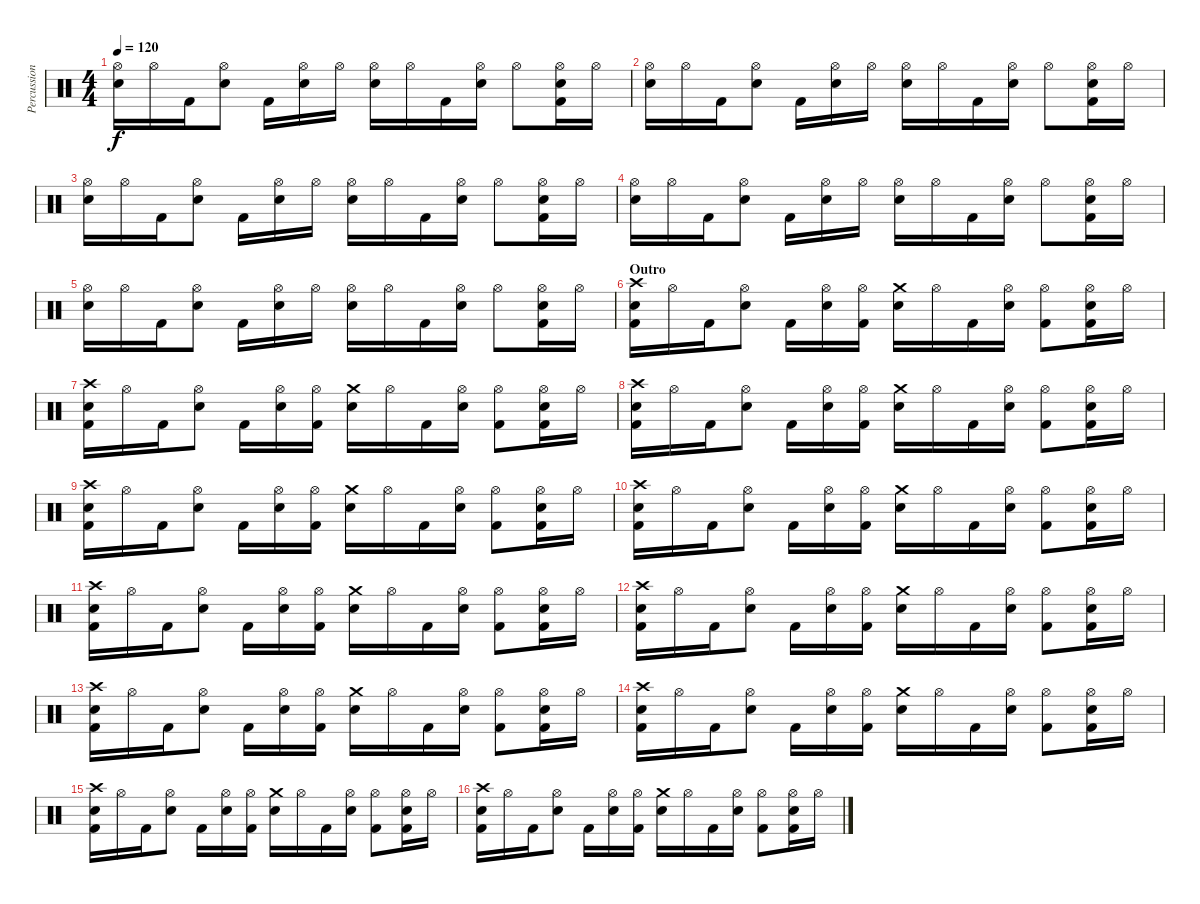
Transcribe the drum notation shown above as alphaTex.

\track ("Percussion" "Percussion") {instrument percussion}
\staff {score}
\articulation defaults
\ts (4 4)
\tempo 120
\clef neutral
\ks c
("Hi-Hat (open)" "Electric Snare (hit)").16{dy f} "Hi-Hat (open)".16 "Kick (hit) 2".16 ("Hi-Hat (open)" "Electric Snare (hit)").8 "Kick (hit) 2".16 ("Hi-Hat (open)" "Electric Snare (hit)").16 "Hi-Hat (open)".16 ("Hi-Hat (open)" "Electric Snare (hit)").16 "Hi-Hat (open)".16 "Kick (hit) 2".16 ("Hi-Hat (open)" "Electric Snare (hit)").16 "Hi-Hat (open)".8 ("Hi-Hat (open)" "Electric Snare (hit)" "Kick (hit) 2").16 "Hi-Hat (open)".16 |
("Hi-Hat (open)" "Electric Snare (hit)").16 "Hi-Hat (open)".16 "Kick (hit) 2".16 ("Hi-Hat (open)" "Electric Snare (hit)").8 "Kick (hit) 2".16 ("Hi-Hat (open)" "Electric Snare (hit)").16 "Hi-Hat (open)".16 ("Hi-Hat (open)" "Electric Snare (hit)").16 "Hi-Hat (open)".16 "Kick (hit) 2".16 ("Hi-Hat (open)" "Electric Snare (hit)").16 "Hi-Hat (open)".8 ("Hi-Hat (open)" "Electric Snare (hit)" "Kick (hit) 2").16 "Hi-Hat (open)".16 |
("Hi-Hat (open)" "Electric Snare (hit)").16 "Hi-Hat (open)".16 "Kick (hit) 2".16 ("Hi-Hat (open)" "Electric Snare (hit)").8 "Kick (hit) 2".16 ("Hi-Hat (open)" "Electric Snare (hit)").16 "Hi-Hat (open)".16 ("Hi-Hat (open)" "Electric Snare (hit)").16 "Hi-Hat (open)".16 "Kick (hit) 2".16 ("Hi-Hat (open)" "Electric Snare (hit)").16 "Hi-Hat (open)".8 ("Hi-Hat (open)" "Electric Snare (hit)" "Kick (hit) 2").16 "Hi-Hat (open)".16 |
("Hi-Hat (open)" "Electric Snare (hit)").16 "Hi-Hat (open)".16 "Kick (hit) 2".16 ("Hi-Hat (open)" "Electric Snare (hit)").8 "Kick (hit) 2".16 ("Hi-Hat (open)" "Electric Snare (hit)").16 "Hi-Hat (open)".16 ("Hi-Hat (open)" "Electric Snare (hit)").16 "Hi-Hat (open)".16 "Kick (hit) 2".16 ("Hi-Hat (open)" "Electric Snare (hit)").16 "Hi-Hat (open)".8 ("Hi-Hat (open)" "Electric Snare (hit)" "Kick (hit) 2").16 "Hi-Hat (open)".16 |
("Hi-Hat (open)" "Electric Snare (hit)").16 "Hi-Hat (open)".16 "Kick (hit) 2".16 ("Hi-Hat (open)" "Electric Snare (hit)").8 "Kick (hit) 2".16 ("Hi-Hat (open)" "Electric Snare (hit)").16 "Hi-Hat (open)".16 ("Hi-Hat (open)" "Electric Snare (hit)").16 "Hi-Hat (open)".16 "Kick (hit) 2".16 ("Hi-Hat (open)" "Electric Snare (hit)").16 "Hi-Hat (open)".8 ("Hi-Hat (open)" "Electric Snare (hit)" "Kick (hit) 2").16 "Hi-Hat (open)".16 |
\section ("" "Outro")
("Crash high (hit)" "Electric Snare (hit)" "Kick (hit) 2").16 "Hi-Hat (open)".16 "Kick (hit) 2".16 ("Hi-Hat (open)" "Electric Snare (hit)").8 "Kick (hit) 2".16 ("Hi-Hat (open)" "Electric Snare (hit)").16 ("Hi-Hat (open)" "Kick (hit) 2").16 ("Crash medium (hit)" "Electric Snare (hit)").16 "Hi-Hat (open)".16 "Kick (hit) 2".16 ("Hi-Hat (open)" "Electric Snare (hit)").16 ("Hi-Hat (open)" "Kick (hit) 2").8 ("Hi-Hat (open)" "Electric Snare (hit)" "Kick (hit) 2").16 "Hi-Hat (open)".16 |
("Crash high (hit)" "Electric Snare (hit)" "Kick (hit) 2").16 "Hi-Hat (open)".16 "Kick (hit) 2".16 ("Hi-Hat (open)" "Electric Snare (hit)").8 "Kick (hit) 2".16 ("Hi-Hat (open)" "Electric Snare (hit)").16 ("Hi-Hat (open)" "Kick (hit) 2").16 ("Crash medium (hit)" "Electric Snare (hit)").16 "Hi-Hat (open)".16 "Kick (hit) 2".16 ("Hi-Hat (open)" "Electric Snare (hit)").16 ("Hi-Hat (open)" "Kick (hit) 2").8 ("Hi-Hat (open)" "Electric Snare (hit)" "Kick (hit) 2").16 "Hi-Hat (open)".16 |
("Crash high (hit)" "Electric Snare (hit)" "Kick (hit) 2").16 "Hi-Hat (open)".16 "Kick (hit) 2".16 ("Hi-Hat (open)" "Electric Snare (hit)").8 "Kick (hit) 2".16 ("Hi-Hat (open)" "Electric Snare (hit)").16 ("Hi-Hat (open)" "Kick (hit) 2").16 ("Crash medium (hit)" "Electric Snare (hit)").16 "Hi-Hat (open)".16 "Kick (hit) 2".16 ("Hi-Hat (open)" "Electric Snare (hit)").16 ("Hi-Hat (open)" "Kick (hit) 2").8 ("Hi-Hat (open)" "Electric Snare (hit)" "Kick (hit) 2").16 "Hi-Hat (open)".16 |
("Crash high (hit)" "Electric Snare (hit)" "Kick (hit) 2").16 "Hi-Hat (open)".16 "Kick (hit) 2".16 ("Hi-Hat (open)" "Electric Snare (hit)").8 "Kick (hit) 2".16 ("Hi-Hat (open)" "Electric Snare (hit)").16 ("Hi-Hat (open)" "Kick (hit) 2").16 ("Crash medium (hit)" "Electric Snare (hit)").16 "Hi-Hat (open)".16 "Kick (hit) 2".16 ("Hi-Hat (open)" "Electric Snare (hit)").16 ("Hi-Hat (open)" "Kick (hit) 2").8 ("Hi-Hat (open)" "Electric Snare (hit)" "Kick (hit) 2").16 "Hi-Hat (open)".16 |
("Crash high (hit)" "Electric Snare (hit)" "Kick (hit) 2").16 "Hi-Hat (open)".16 "Kick (hit) 2".16 ("Hi-Hat (open)" "Electric Snare (hit)").8 "Kick (hit) 2".16 ("Hi-Hat (open)" "Electric Snare (hit)").16 ("Hi-Hat (open)" "Kick (hit) 2").16 ("Crash medium (hit)" "Electric Snare (hit)").16 "Hi-Hat (open)".16 "Kick (hit) 2".16 ("Hi-Hat (open)" "Electric Snare (hit)").16 ("Hi-Hat (open)" "Kick (hit) 2").8 ("Hi-Hat (open)" "Electric Snare (hit)" "Kick (hit) 2").16 "Hi-Hat (open)".16 |
("Crash high (hit)" "Electric Snare (hit)" "Kick (hit) 2").16 "Hi-Hat (open)".16 "Kick (hit) 2".16 ("Hi-Hat (open)" "Electric Snare (hit)").8 "Kick (hit) 2".16 ("Hi-Hat (open)" "Electric Snare (hit)").16 ("Hi-Hat (open)" "Kick (hit) 2").16 ("Crash medium (hit)" "Electric Snare (hit)").16 "Hi-Hat (open)".16 "Kick (hit) 2".16 ("Hi-Hat (open)" "Electric Snare (hit)").16 ("Hi-Hat (open)" "Kick (hit) 2").8 ("Hi-Hat (open)" "Electric Snare (hit)" "Kick (hit) 2").16 "Hi-Hat (open)".16 |
("Crash high (hit)" "Electric Snare (hit)" "Kick (hit) 2").16 "Hi-Hat (open)".16 "Kick (hit) 2".16 ("Hi-Hat (open)" "Electric Snare (hit)").8 "Kick (hit) 2".16 ("Hi-Hat (open)" "Electric Snare (hit)").16 ("Hi-Hat (open)" "Kick (hit) 2").16 ("Crash medium (hit)" "Electric Snare (hit)").16 "Hi-Hat (open)".16 "Kick (hit) 2".16 ("Hi-Hat (open)" "Electric Snare (hit)").16 ("Hi-Hat (open)" "Kick (hit) 2").8 ("Hi-Hat (open)" "Electric Snare (hit)" "Kick (hit) 2").16 "Hi-Hat (open)".16 |
("Crash high (hit)" "Electric Snare (hit)" "Kick (hit) 2").16 "Hi-Hat (open)".16 "Kick (hit) 2".16 ("Hi-Hat (open)" "Electric Snare (hit)").8 "Kick (hit) 2".16 ("Hi-Hat (open)" "Electric Snare (hit)").16 ("Hi-Hat (open)" "Kick (hit) 2").16 ("Crash medium (hit)" "Electric Snare (hit)").16 "Hi-Hat (open)".16 "Kick (hit) 2".16 ("Hi-Hat (open)" "Electric Snare (hit)").16 ("Hi-Hat (open)" "Kick (hit) 2").8 ("Hi-Hat (open)" "Electric Snare (hit)" "Kick (hit) 2").16 "Hi-Hat (open)".16 |
("Crash high (hit)" "Electric Snare (hit)" "Kick (hit) 2").16 "Hi-Hat (open)".16 "Kick (hit) 2".16 ("Hi-Hat (open)" "Electric Snare (hit)").8 "Kick (hit) 2".16 ("Hi-Hat (open)" "Electric Snare (hit)").16 ("Hi-Hat (open)" "Kick (hit) 2").16 ("Crash medium (hit)" "Electric Snare (hit)").16 "Hi-Hat (open)".16 "Kick (hit) 2".16 ("Hi-Hat (open)" "Electric Snare (hit)").16 ("Hi-Hat (open)" "Kick (hit) 2").8 ("Hi-Hat (open)" "Electric Snare (hit)" "Kick (hit) 2").16 "Hi-Hat (open)".16 |
("Crash high (hit)" "Electric Snare (hit)" "Kick (hit) 2").16 "Hi-Hat (open)".16 "Kick (hit) 2".16 ("Hi-Hat (open)" "Electric Snare (hit)").8 "Kick (hit) 2".16 ("Hi-Hat (open)" "Electric Snare (hit)").16 ("Hi-Hat (open)" "Kick (hit) 2").16 ("Crash medium (hit)" "Electric Snare (hit)").16 "Hi-Hat (open)".16 "Kick (hit) 2".16 ("Hi-Hat (open)" "Electric Snare (hit)").16 ("Hi-Hat (open)" "Kick (hit) 2").8 ("Hi-Hat (open)" "Electric Snare (hit)" "Kick (hit) 2").16 "Hi-Hat (open)".16 |
("Crash high (hit)" "Electric Snare (hit)" "Kick (hit) 2").16 "Hi-Hat (open)".16 "Kick (hit) 2".16 ("Hi-Hat (open)" "Electric Snare (hit)").8 "Kick (hit) 2".16 ("Hi-Hat (open)" "Electric Snare (hit)").16 ("Hi-Hat (open)" "Kick (hit) 2").16 ("Crash medium (hit)" "Electric Snare (hit)").16 "Hi-Hat (open)".16 "Kick (hit) 2".16 ("Hi-Hat (open)" "Electric Snare (hit)").16 ("Hi-Hat (open)" "Kick (hit) 2").8 ("Hi-Hat (open)" "Electric Snare (hit)" "Kick (hit) 2").16 "Hi-Hat (open)".16
